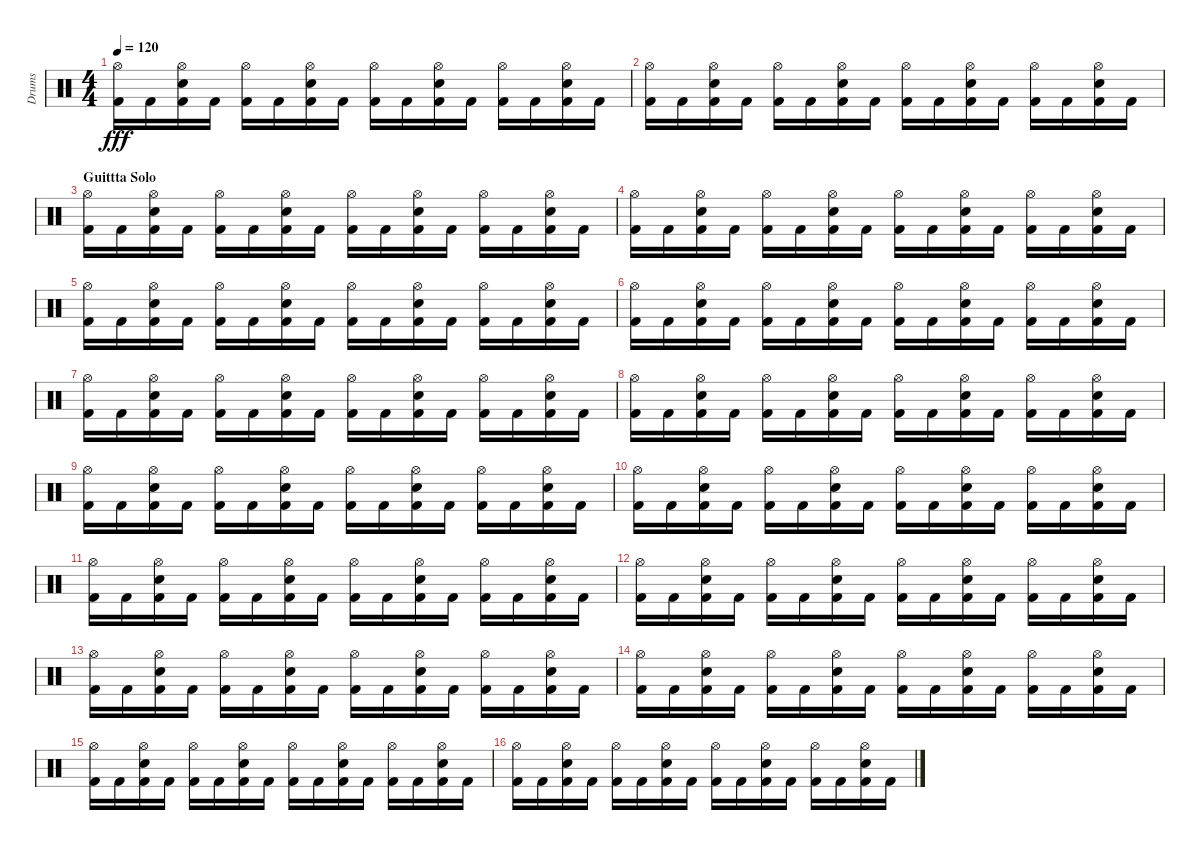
\track ("Drums" "Drums") {instrument percussion}
\staff {score}
\articulation defaults
\ts (4 4)
\tempo 120
\clef neutral
\ks c
("Hi-Hat (open)" "Kick (hit) 2").16{dy fff} "Kick (hit) 2".16 ("Hi-Hat (open)" "Electric Snare (hit)" "Kick (hit) 2").16 "Kick (hit) 2".16 ("Hi-Hat (open)" "Kick (hit) 2").16 "Kick (hit) 2".16 ("Hi-Hat (open)" "Electric Snare (hit)" "Kick (hit) 2").16 "Kick (hit) 2".16 ("Hi-Hat (open)" "Kick (hit) 2").16 "Kick (hit) 2".16 ("Hi-Hat (open)" "Electric Snare (hit)" "Kick (hit) 2").16 "Kick (hit) 2".16 ("Hi-Hat (open)" "Kick (hit) 2").16 "Kick (hit) 2".16 ("Hi-Hat (open)" "Electric Snare (hit)" "Kick (hit) 2").16 "Kick (hit) 2".16 |
("Hi-Hat (open)" "Kick (hit) 2").16 "Kick (hit) 2".16 ("Hi-Hat (open)" "Electric Snare (hit)" "Kick (hit) 2").16 "Kick (hit) 2".16 ("Hi-Hat (open)" "Kick (hit) 2").16 "Kick (hit) 2".16 ("Hi-Hat (open)" "Electric Snare (hit)" "Kick (hit) 2").16 "Kick (hit) 2".16 ("Hi-Hat (open)" "Kick (hit) 2").16 "Kick (hit) 2".16 ("Hi-Hat (open)" "Electric Snare (hit)" "Kick (hit) 2").16 "Kick (hit) 2".16 ("Hi-Hat (open)" "Kick (hit) 2").16 "Kick (hit) 2".16 ("Hi-Hat (open)" "Electric Snare (hit)" "Kick (hit) 2").16 "Kick (hit) 2".16 |
\section ("" "Guittta Solo")
("Hi-Hat (open)" "Kick (hit) 2").16 "Kick (hit) 2".16 ("Hi-Hat (open)" "Electric Snare (hit)" "Kick (hit) 2").16 "Kick (hit) 2".16 ("Hi-Hat (open)" "Kick (hit) 2").16 "Kick (hit) 2".16 ("Hi-Hat (open)" "Electric Snare (hit)" "Kick (hit) 2").16 "Kick (hit) 2".16 ("Hi-Hat (open)" "Kick (hit) 2").16 "Kick (hit) 2".16 ("Hi-Hat (open)" "Electric Snare (hit)" "Kick (hit) 2").16 "Kick (hit) 2".16 ("Hi-Hat (open)" "Kick (hit) 2").16 "Kick (hit) 2".16 ("Hi-Hat (open)" "Electric Snare (hit)" "Kick (hit) 2").16 "Kick (hit) 2".16 |
("Hi-Hat (open)" "Kick (hit) 2").16 "Kick (hit) 2".16 ("Hi-Hat (open)" "Electric Snare (hit)" "Kick (hit) 2").16 "Kick (hit) 2".16 ("Hi-Hat (open)" "Kick (hit) 2").16 "Kick (hit) 2".16 ("Hi-Hat (open)" "Electric Snare (hit)" "Kick (hit) 2").16 "Kick (hit) 2".16 ("Hi-Hat (open)" "Kick (hit) 2").16 "Kick (hit) 2".16 ("Hi-Hat (open)" "Electric Snare (hit)" "Kick (hit) 2").16 "Kick (hit) 2".16 ("Hi-Hat (open)" "Kick (hit) 2").16 "Kick (hit) 2".16 ("Hi-Hat (open)" "Electric Snare (hit)" "Kick (hit) 2").16 "Kick (hit) 2".16 |
("Hi-Hat (open)" "Kick (hit) 2").16 "Kick (hit) 2".16 ("Hi-Hat (open)" "Electric Snare (hit)" "Kick (hit) 2").16 "Kick (hit) 2".16 ("Hi-Hat (open)" "Kick (hit) 2").16 "Kick (hit) 2".16 ("Hi-Hat (open)" "Electric Snare (hit)" "Kick (hit) 2").16 "Kick (hit) 2".16 ("Hi-Hat (open)" "Kick (hit) 2").16 "Kick (hit) 2".16 ("Hi-Hat (open)" "Electric Snare (hit)" "Kick (hit) 2").16 "Kick (hit) 2".16 ("Hi-Hat (open)" "Kick (hit) 2").16 "Kick (hit) 2".16 ("Hi-Hat (open)" "Electric Snare (hit)" "Kick (hit) 2").16 "Kick (hit) 2".16 |
("Hi-Hat (open)" "Kick (hit) 2").16 "Kick (hit) 2".16 ("Hi-Hat (open)" "Electric Snare (hit)" "Kick (hit) 2").16 "Kick (hit) 2".16 ("Hi-Hat (open)" "Kick (hit) 2").16 "Kick (hit) 2".16 ("Hi-Hat (open)" "Electric Snare (hit)" "Kick (hit) 2").16 "Kick (hit) 2".16 ("Hi-Hat (open)" "Kick (hit) 2").16 "Kick (hit) 2".16 ("Hi-Hat (open)" "Electric Snare (hit)" "Kick (hit) 2").16 "Kick (hit) 2".16 ("Hi-Hat (open)" "Kick (hit) 2").16 "Kick (hit) 2".16 ("Hi-Hat (open)" "Electric Snare (hit)" "Kick (hit) 2").16 "Kick (hit) 2".16 |
("Hi-Hat (open)" "Kick (hit) 2").16 "Kick (hit) 2".16 ("Hi-Hat (open)" "Electric Snare (hit)" "Kick (hit) 2").16 "Kick (hit) 2".16 ("Hi-Hat (open)" "Kick (hit) 2").16 "Kick (hit) 2".16 ("Hi-Hat (open)" "Electric Snare (hit)" "Kick (hit) 2").16 "Kick (hit) 2".16 ("Hi-Hat (open)" "Kick (hit) 2").16 "Kick (hit) 2".16 ("Hi-Hat (open)" "Electric Snare (hit)" "Kick (hit) 2").16 "Kick (hit) 2".16 ("Hi-Hat (open)" "Kick (hit) 2").16 "Kick (hit) 2".16 ("Hi-Hat (open)" "Electric Snare (hit)" "Kick (hit) 2").16 "Kick (hit) 2".16 |
("Hi-Hat (open)" "Kick (hit) 2").16 "Kick (hit) 2".16 ("Hi-Hat (open)" "Electric Snare (hit)" "Kick (hit) 2").16 "Kick (hit) 2".16 ("Hi-Hat (open)" "Kick (hit) 2").16 "Kick (hit) 2".16 ("Hi-Hat (open)" "Electric Snare (hit)" "Kick (hit) 2").16 "Kick (hit) 2".16 ("Hi-Hat (open)" "Kick (hit) 2").16 "Kick (hit) 2".16 ("Hi-Hat (open)" "Electric Snare (hit)" "Kick (hit) 2").16 "Kick (hit) 2".16 ("Hi-Hat (open)" "Kick (hit) 2").16 "Kick (hit) 2".16 ("Hi-Hat (open)" "Electric Snare (hit)" "Kick (hit) 2").16 "Kick (hit) 2".16 |
("Hi-Hat (open)" "Kick (hit) 2").16 "Kick (hit) 2".16 ("Hi-Hat (open)" "Electric Snare (hit)" "Kick (hit) 2").16 "Kick (hit) 2".16 ("Hi-Hat (open)" "Kick (hit) 2").16 "Kick (hit) 2".16 ("Hi-Hat (open)" "Electric Snare (hit)" "Kick (hit) 2").16 "Kick (hit) 2".16 ("Hi-Hat (open)" "Kick (hit) 2").16 "Kick (hit) 2".16 ("Hi-Hat (open)" "Electric Snare (hit)" "Kick (hit) 2").16 "Kick (hit) 2".16 ("Hi-Hat (open)" "Kick (hit) 2").16 "Kick (hit) 2".16 ("Hi-Hat (open)" "Electric Snare (hit)" "Kick (hit) 2").16 "Kick (hit) 2".16 |
("Hi-Hat (open)" "Kick (hit) 2").16 "Kick (hit) 2".16 ("Hi-Hat (open)" "Electric Snare (hit)" "Kick (hit) 2").16 "Kick (hit) 2".16 ("Hi-Hat (open)" "Kick (hit) 2").16 "Kick (hit) 2".16 ("Hi-Hat (open)" "Electric Snare (hit)" "Kick (hit) 2").16 "Kick (hit) 2".16 ("Hi-Hat (open)" "Kick (hit) 2").16 "Kick (hit) 2".16 ("Hi-Hat (open)" "Electric Snare (hit)" "Kick (hit) 2").16 "Kick (hit) 2".16 ("Hi-Hat (open)" "Kick (hit) 2").16 "Kick (hit) 2".16 ("Hi-Hat (open)" "Electric Snare (hit)" "Kick (hit) 2").16 "Kick (hit) 2".16 |
("Hi-Hat (open)" "Kick (hit) 2").16 "Kick (hit) 2".16 ("Hi-Hat (open)" "Electric Snare (hit)" "Kick (hit) 2").16 "Kick (hit) 2".16 ("Hi-Hat (open)" "Kick (hit) 2").16 "Kick (hit) 2".16 ("Hi-Hat (open)" "Electric Snare (hit)" "Kick (hit) 2").16 "Kick (hit) 2".16 ("Hi-Hat (open)" "Kick (hit) 2").16 "Kick (hit) 2".16 ("Hi-Hat (open)" "Electric Snare (hit)" "Kick (hit) 2").16 "Kick (hit) 2".16 ("Hi-Hat (open)" "Kick (hit) 2").16 "Kick (hit) 2".16 ("Hi-Hat (open)" "Electric Snare (hit)" "Kick (hit) 2").16 "Kick (hit) 2".16 |
("Hi-Hat (open)" "Kick (hit) 2").16 "Kick (hit) 2".16 ("Hi-Hat (open)" "Electric Snare (hit)" "Kick (hit) 2").16 "Kick (hit) 2".16 ("Hi-Hat (open)" "Kick (hit) 2").16 "Kick (hit) 2".16 ("Hi-Hat (open)" "Electric Snare (hit)" "Kick (hit) 2").16 "Kick (hit) 2".16 ("Hi-Hat (open)" "Kick (hit) 2").16 "Kick (hit) 2".16 ("Hi-Hat (open)" "Electric Snare (hit)" "Kick (hit) 2").16 "Kick (hit) 2".16 ("Hi-Hat (open)" "Kick (hit) 2").16 "Kick (hit) 2".16 ("Hi-Hat (open)" "Electric Snare (hit)" "Kick (hit) 2").16 "Kick (hit) 2".16 |
("Hi-Hat (open)" "Kick (hit) 2").16 "Kick (hit) 2".16 ("Hi-Hat (open)" "Electric Snare (hit)" "Kick (hit) 2").16 "Kick (hit) 2".16 ("Hi-Hat (open)" "Kick (hit) 2").16 "Kick (hit) 2".16 ("Hi-Hat (open)" "Electric Snare (hit)" "Kick (hit) 2").16 "Kick (hit) 2".16 ("Hi-Hat (open)" "Kick (hit) 2").16 "Kick (hit) 2".16 ("Hi-Hat (open)" "Electric Snare (hit)" "Kick (hit) 2").16 "Kick (hit) 2".16 ("Hi-Hat (open)" "Kick (hit) 2").16 "Kick (hit) 2".16 ("Hi-Hat (open)" "Electric Snare (hit)" "Kick (hit) 2").16 "Kick (hit) 2".16 |
("Hi-Hat (open)" "Kick (hit) 2").16 "Kick (hit) 2".16 ("Hi-Hat (open)" "Electric Snare (hit)" "Kick (hit) 2").16 "Kick (hit) 2".16 ("Hi-Hat (open)" "Kick (hit) 2").16 "Kick (hit) 2".16 ("Hi-Hat (open)" "Electric Snare (hit)" "Kick (hit) 2").16 "Kick (hit) 2".16 ("Hi-Hat (open)" "Kick (hit) 2").16 "Kick (hit) 2".16 ("Hi-Hat (open)" "Electric Snare (hit)" "Kick (hit) 2").16 "Kick (hit) 2".16 ("Hi-Hat (open)" "Kick (hit) 2").16 "Kick (hit) 2".16 ("Hi-Hat (open)" "Electric Snare (hit)" "Kick (hit) 2").16 "Kick (hit) 2".16 |
("Hi-Hat (open)" "Kick (hit) 2").16 "Kick (hit) 2".16 ("Hi-Hat (open)" "Electric Snare (hit)" "Kick (hit) 2").16 "Kick (hit) 2".16 ("Hi-Hat (open)" "Kick (hit) 2").16 "Kick (hit) 2".16 ("Hi-Hat (open)" "Electric Snare (hit)" "Kick (hit) 2").16 "Kick (hit) 2".16 ("Hi-Hat (open)" "Kick (hit) 2").16 "Kick (hit) 2".16 ("Hi-Hat (open)" "Electric Snare (hit)" "Kick (hit) 2").16 "Kick (hit) 2".16 ("Hi-Hat (open)" "Kick (hit) 2").16 "Kick (hit) 2".16 ("Hi-Hat (open)" "Electric Snare (hit)" "Kick (hit) 2").16 "Kick (hit) 2".16 |
("Hi-Hat (open)" "Kick (hit) 2").16 "Kick (hit) 2".16 ("Hi-Hat (open)" "Electric Snare (hit)" "Kick (hit) 2").16 "Kick (hit) 2".16 ("Hi-Hat (open)" "Kick (hit) 2").16 "Kick (hit) 2".16 ("Hi-Hat (open)" "Electric Snare (hit)" "Kick (hit) 2").16 "Kick (hit) 2".16 ("Hi-Hat (open)" "Kick (hit) 2").16 "Kick (hit) 2".16 ("Hi-Hat (open)" "Electric Snare (hit)" "Kick (hit) 2").16 "Kick (hit) 2".16 ("Hi-Hat (open)" "Kick (hit) 2").16 "Kick (hit) 2".16 ("Hi-Hat (open)" "Electric Snare (hit)" "Kick (hit) 2").16 "Kick (hit) 2".16
